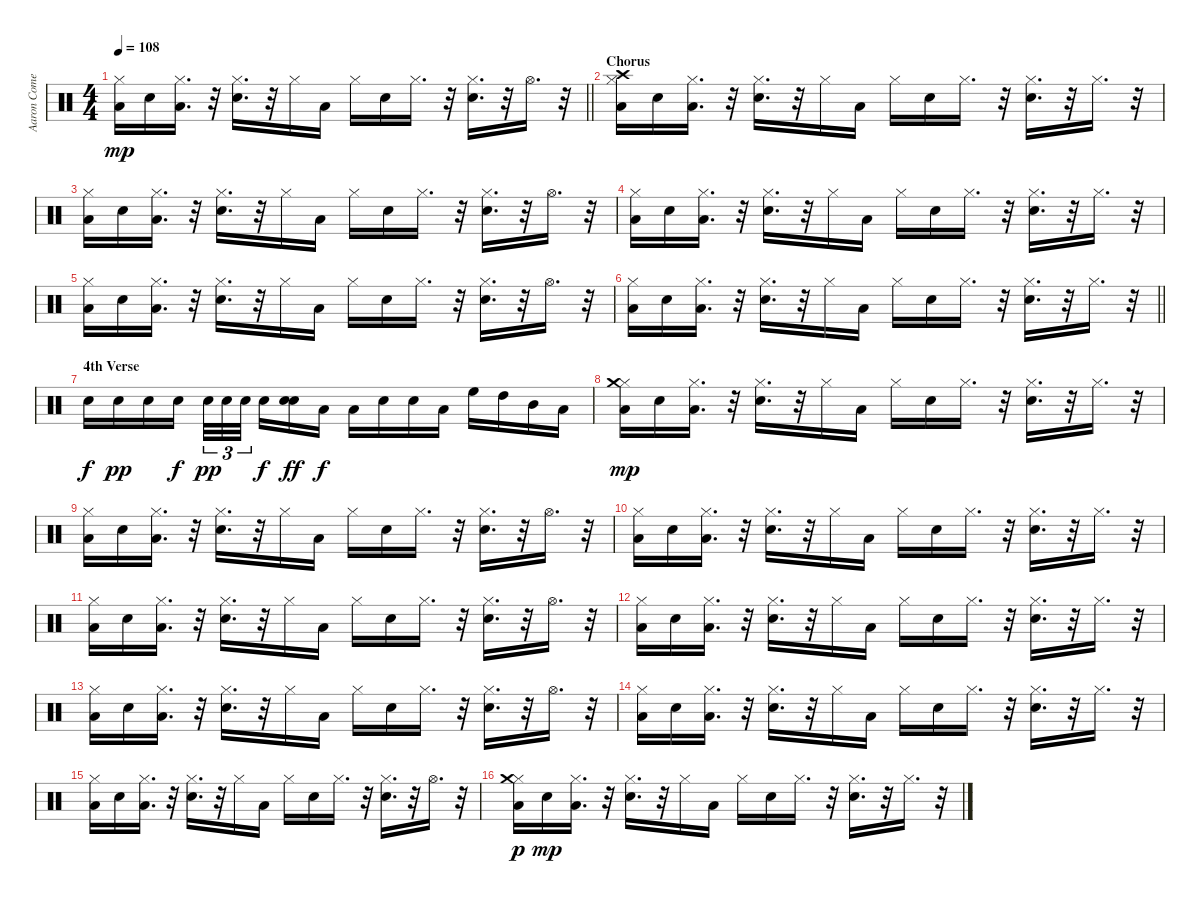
\track ("Aaron Comess" "Aaron Come") {instrument percussion}
\staff {score}
\articulation defaults
\ts (4 4)
\tempo 108
\clef neutral
\barLineRight lightlight
\ks c
("Low Tom (hit)" "Hi-Hat (closed)").16{dy mp} "Electric Snare (hit)".16 ("Low Tom (hit)" "Hi-Hat (closed)").16{d} r.32 ("Snare (hit) 2" "Hi-Hat (closed)").16{d} r.32 "Hi-Hat (closed)".16 "Low Tom (hit)".16 "Hi-Hat (closed)".16 "Snare (hit) 2".16 "Hi-Hat (closed)".16{d} r.32 ("Snare (hit) 2" "Hi-Hat (closed)").16{d} r.32 "Hi-Hat (open)".16{d} r.32 |
\section ("" "Chorus")
("Crash high (hit)" "Low Tom (hit)" "Hi-Hat (closed)").16 "Electric Snare (hit)".16 ("Low Tom (hit)" "Hi-Hat (closed)").16{d} r.32 ("Snare (hit) 2" "Hi-Hat (closed)").16{d} r.32 "Hi-Hat (closed)".16 "Low Tom (hit)".16 "Hi-Hat (closed)".16 "Snare (hit) 2".16 "Hi-Hat (closed)".16{d} r.32 ("Snare (hit) 2" "Hi-Hat (closed)").16{d} r.32 "Hi-Hat (closed)".16{d} r.32 |
("Low Tom (hit)" "Hi-Hat (closed)").16 "Electric Snare (hit)".16 ("Low Tom (hit)" "Hi-Hat (closed)").16{d} r.32 ("Snare (hit) 2" "Hi-Hat (closed)").16{d} r.32 "Hi-Hat (closed)".16 "Low Tom (hit)".16 "Hi-Hat (closed)".16 "Snare (hit) 2".16 "Hi-Hat (closed)".16{d} r.32 ("Snare (hit) 2" "Hi-Hat (closed)").16{d} r.32 "Hi-Hat (open)".16{d} r.32 |
("Low Tom (hit)" "Hi-Hat (closed)").16 "Electric Snare (hit)".16 ("Low Tom (hit)" "Hi-Hat (closed)").16{d} r.32 ("Snare (hit) 2" "Hi-Hat (closed)").16{d} r.32 "Hi-Hat (closed)".16 "Low Tom (hit)".16 "Hi-Hat (closed)".16 "Snare (hit) 2".16 "Hi-Hat (closed)".16{d} r.32 ("Snare (hit) 2" "Hi-Hat (closed)").16{d} r.32 "Hi-Hat (closed)".16{d} r.32 |
("Low Tom (hit)" "Hi-Hat (closed)").16 "Electric Snare (hit)".16 ("Low Tom (hit)" "Hi-Hat (closed)").16{d} r.32 ("Snare (hit) 2" "Hi-Hat (closed)").16{d} r.32 "Hi-Hat (closed)".16 "Low Tom (hit)".16 "Hi-Hat (closed)".16 "Snare (hit) 2".16 "Hi-Hat (closed)".16{d} r.32 ("Snare (hit) 2" "Hi-Hat (closed)").16{d} r.32 "Hi-Hat (open)".16{d} r.32 |
\barLineRight lightlight
("Low Tom (hit)" "Hi-Hat (closed)").16 "Electric Snare (hit)".16 ("Low Tom (hit)" "Hi-Hat (closed)").16{d} r.32 ("Snare (hit) 2" "Hi-Hat (closed)").16{d} r.32 "Hi-Hat (closed)".16 "Low Tom (hit)".16 "Hi-Hat (closed)".16 "Snare (hit) 2".16 "Hi-Hat (closed)".16{d} r.32 ("Snare (hit) 2" "Hi-Hat (closed)").16{d} r.32 "Hi-Hat (closed)".16{d} r.32 |
\section ("" "4th Verse")
"Snare (hit) 2".16{dy f} "Snare (hit) 2".16{dy pp} "Snare (hit) 2".16 "Snare (hit) 2".16{dy f} "Snare (hit) 2".32{tu (3 2) dy pp} "Snare (hit) 2".32{tu (3 2)} "Snare (hit) 2".32{tu (3 2) beam splitsecondary} "Snare (hit) 2".16{dy f} ("Snare (hit) 2" "Electric Snare (hit)").16{dy ff} "Low Tom (hit)".16{dy f} "Low Tom (hit)".16 "Snare (hit) 2".16 "Snare (hit) 2".16 "Low Tom (hit)".16 "High Floor Tom (hit)".16 "High Tom (hit)".16 "Mid Tom (hit)".16 "Low Tom (hit)".16 |
("Low Tom (hit)" "Hi-Hat (closed)" "Crash medium (hit)").16{dy mp} "Electric Snare (hit)".16 ("Low Tom (hit)" "Hi-Hat (closed)").16{d} r.32 ("Snare (hit) 2" "Hi-Hat (closed)").16{d} r.32 "Hi-Hat (closed)".16 "Low Tom (hit)".16 "Hi-Hat (closed)".16 "Snare (hit) 2".16 "Hi-Hat (closed)".16{d} r.32 ("Snare (hit) 2" "Hi-Hat (closed)").16{d} r.32 "Hi-Hat (closed)".16{d} r.32 |
("Low Tom (hit)" "Hi-Hat (closed)").16 "Electric Snare (hit)".16 ("Low Tom (hit)" "Hi-Hat (closed)").16{d} r.32 ("Snare (hit) 2" "Hi-Hat (closed)").16{d} r.32 "Hi-Hat (closed)".16 "Low Tom (hit)".16 "Hi-Hat (closed)".16 "Snare (hit) 2".16 "Hi-Hat (closed)".16{d} r.32 ("Snare (hit) 2" "Hi-Hat (closed)").16{d} r.32 "Hi-Hat (open)".16{d} r.32 |
("Low Tom (hit)" "Hi-Hat (closed)").16 "Electric Snare (hit)".16 ("Low Tom (hit)" "Hi-Hat (closed)").16{d} r.32 ("Snare (hit) 2" "Hi-Hat (closed)").16{d} r.32 "Hi-Hat (closed)".16 "Low Tom (hit)".16 "Hi-Hat (closed)".16 "Snare (hit) 2".16 "Hi-Hat (closed)".16{d} r.32 ("Snare (hit) 2" "Hi-Hat (closed)").16{d} r.32 "Hi-Hat (closed)".16{d} r.32 |
("Low Tom (hit)" "Hi-Hat (closed)").16 "Electric Snare (hit)".16 ("Low Tom (hit)" "Hi-Hat (closed)").16{d} r.32 ("Snare (hit) 2" "Hi-Hat (closed)").16{d} r.32 "Hi-Hat (closed)".16 "Low Tom (hit)".16 "Hi-Hat (closed)".16 "Snare (hit) 2".16 "Hi-Hat (closed)".16{d} r.32 ("Snare (hit) 2" "Hi-Hat (closed)").16{d} r.32 "Hi-Hat (open)".16{d} r.32 |
("Low Tom (hit)" "Hi-Hat (closed)").16 "Electric Snare (hit)".16 ("Low Tom (hit)" "Hi-Hat (closed)").16{d} r.32 ("Snare (hit) 2" "Hi-Hat (closed)").16{d} r.32 "Hi-Hat (closed)".16 "Low Tom (hit)".16 "Hi-Hat (closed)".16 "Snare (hit) 2".16 "Hi-Hat (closed)".16{d} r.32 ("Snare (hit) 2" "Hi-Hat (closed)").16{d} r.32 "Hi-Hat (closed)".16{d} r.32 |
("Low Tom (hit)" "Hi-Hat (closed)").16 "Electric Snare (hit)".16 ("Low Tom (hit)" "Hi-Hat (closed)").16{d} r.32 ("Snare (hit) 2" "Hi-Hat (closed)").16{d} r.32 "Hi-Hat (closed)".16 "Low Tom (hit)".16 "Hi-Hat (closed)".16 "Snare (hit) 2".16 "Hi-Hat (closed)".16{d} r.32 ("Snare (hit) 2" "Hi-Hat (closed)").16{d} r.32 "Hi-Hat (open)".16{d} r.32 |
("Low Tom (hit)" "Hi-Hat (closed)").16 "Electric Snare (hit)".16 ("Low Tom (hit)" "Hi-Hat (closed)").16{d} r.32 ("Snare (hit) 2" "Hi-Hat (closed)").16{d} r.32 "Hi-Hat (closed)".16 "Low Tom (hit)".16 "Hi-Hat (closed)".16 "Snare (hit) 2".16 "Hi-Hat (closed)".16{d} r.32 ("Snare (hit) 2" "Hi-Hat (closed)").16{d} r.32 "Hi-Hat (closed)".16{d} r.32 |
("Low Tom (hit)" "Hi-Hat (closed)").16 "Electric Snare (hit)".16 ("Low Tom (hit)" "Hi-Hat (closed)").16{d} r.32 ("Snare (hit) 2" "Hi-Hat (closed)").16{d} r.32 "Hi-Hat (closed)".16 "Low Tom (hit)".16 "Hi-Hat (closed)".16 "Snare (hit) 2".16 "Hi-Hat (closed)".16{d} r.32 ("Snare (hit) 2" "Hi-Hat (closed)").16{d} r.32 "Hi-Hat (open)".16{d} r.32 |
("Low Tom (hit)" "Hi-Hat (closed)" "Crash medium (hit)").16{dy p} "Electric Snare (hit)".16{dy mp} ("Low Tom (hit)" "Hi-Hat (closed)").16{d} r.32 ("Snare (hit) 2" "Hi-Hat (closed)").16{d} r.32 "Hi-Hat (closed)".16 "Low Tom (hit)".16 "Hi-Hat (closed)".16 "Snare (hit) 2".16 "Hi-Hat (closed)".16{d} r.32 ("Snare (hit) 2" "Hi-Hat (closed)").16{d} r.32 "Hi-Hat (closed)".16{d} r.32
